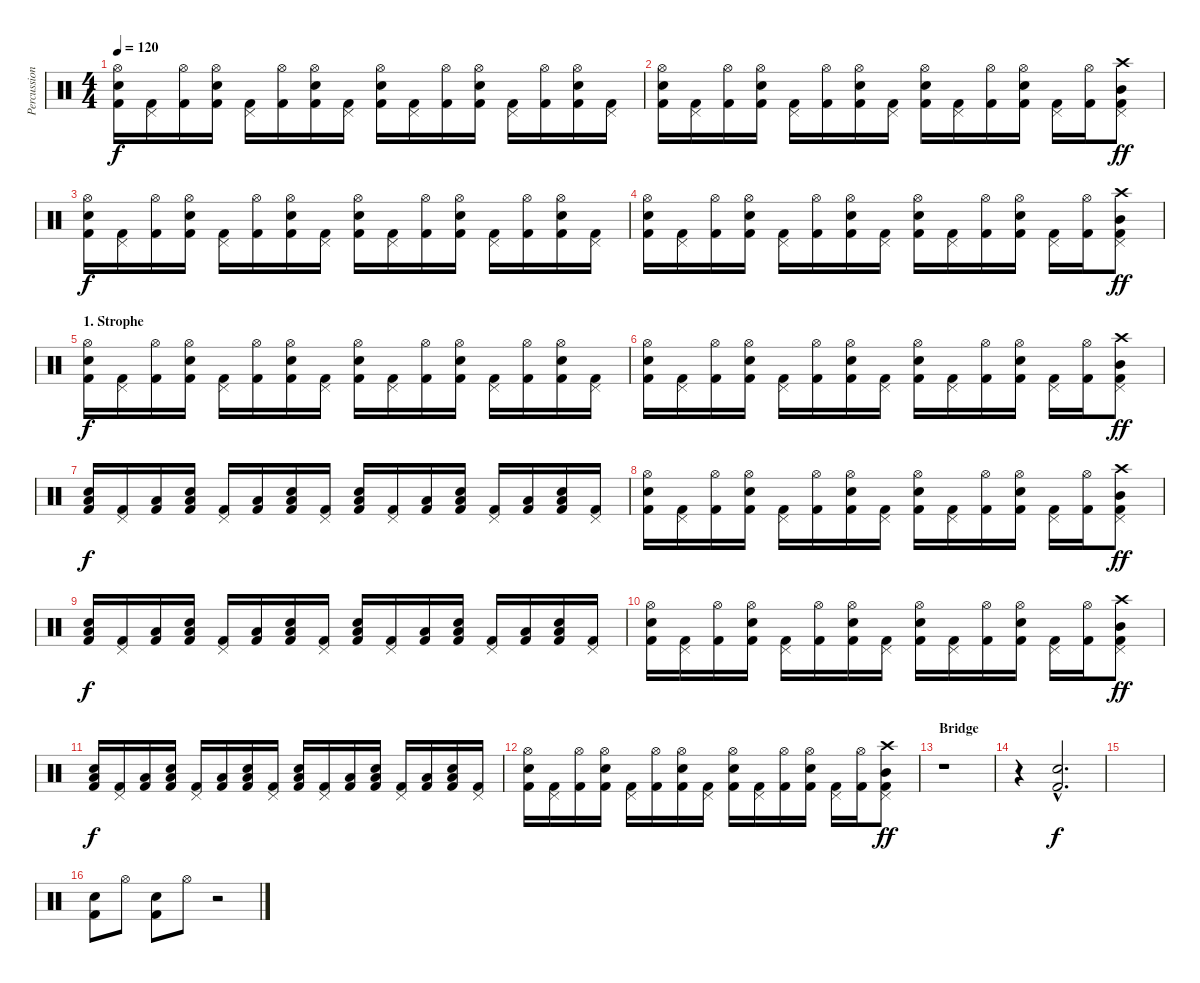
\track ("Percussion" "Percussion") {instrument percussion}
\staff {score}
\articulation defaults
\ts (4 4)
\tempo 120
\clef neutral
\ks c
("Hi-Hat (open)" "Electric Snare (hit)" "Kick (hit) 2").16{dy f} ("Pedal Hi-Hat (hit)" "Kick (hit) 2").16 ("Hi-Hat (open)" "Kick (hit) 2").16 ("Hi-Hat (open)" "Electric Snare (hit)" "Kick (hit) 2").16 ("Pedal Hi-Hat (hit)" "Kick (hit) 2").16 ("Hi-Hat (open)" "Kick (hit) 2").16 ("Hi-Hat (open)" "Electric Snare (hit)" "Kick (hit) 2").16 ("Pedal Hi-Hat (hit)" "Kick (hit) 2").16 ("Hi-Hat (open)" "Electric Snare (hit)" "Kick (hit) 2").16 ("Pedal Hi-Hat (hit)" "Kick (hit) 2").16 ("Hi-Hat (open)" "Kick (hit) 2").16 ("Hi-Hat (open)" "Electric Snare (hit)" "Kick (hit) 2").16 ("Pedal Hi-Hat (hit)" "Kick (hit) 2").16 ("Hi-Hat (open)" "Kick (hit) 2").16 ("Hi-Hat (open)" "Electric Snare (hit)" "Kick (hit) 2").16 ("Pedal Hi-Hat (hit)" "Kick (hit) 2").16 |
("Hi-Hat (open)" "Electric Snare (hit)" "Kick (hit) 2").16 ("Pedal Hi-Hat (hit)" "Kick (hit) 2").16 ("Hi-Hat (open)" "Kick (hit) 2").16 ("Hi-Hat (open)" "Electric Snare (hit)" "Kick (hit) 2").16 ("Pedal Hi-Hat (hit)" "Kick (hit) 2").16 ("Hi-Hat (open)" "Kick (hit) 2").16 ("Hi-Hat (open)" "Electric Snare (hit)" "Kick (hit) 2").16 ("Pedal Hi-Hat (hit)" "Kick (hit) 2").16 ("Hi-Hat (open)" "Electric Snare (hit)" "Kick (hit) 2").16 ("Pedal Hi-Hat (hit)" "Kick (hit) 2").16 ("Hi-Hat (open)" "Kick (hit) 2").16 ("Hi-Hat (open)" "Electric Snare (hit)" "Kick (hit) 2").16 ("Pedal Hi-Hat (hit)" "Kick (hit) 2").16 ("Hi-Hat (open)" "Kick (hit) 2").16 ("Crash high (hit)" "Mid Tom (hit)" "Pedal Hi-Hat (hit)" "Kick (hit) 2").8{dy ff} |
("Hi-Hat (open)" "Electric Snare (hit)" "Kick (hit) 2").16{dy f} ("Pedal Hi-Hat (hit)" "Kick (hit) 2").16 ("Hi-Hat (open)" "Kick (hit) 2").16 ("Hi-Hat (open)" "Electric Snare (hit)" "Kick (hit) 2").16 ("Pedal Hi-Hat (hit)" "Kick (hit) 2").16 ("Hi-Hat (open)" "Kick (hit) 2").16 ("Hi-Hat (open)" "Electric Snare (hit)" "Kick (hit) 2").16 ("Pedal Hi-Hat (hit)" "Kick (hit) 2").16 ("Hi-Hat (open)" "Electric Snare (hit)" "Kick (hit) 2").16 ("Pedal Hi-Hat (hit)" "Kick (hit) 2").16 ("Hi-Hat (open)" "Kick (hit) 2").16 ("Hi-Hat (open)" "Electric Snare (hit)" "Kick (hit) 2").16 ("Pedal Hi-Hat (hit)" "Kick (hit) 2").16 ("Hi-Hat (open)" "Kick (hit) 2").16 ("Hi-Hat (open)" "Electric Snare (hit)" "Kick (hit) 2").16 ("Pedal Hi-Hat (hit)" "Kick (hit) 2").16 |
("Hi-Hat (open)" "Electric Snare (hit)" "Kick (hit) 2").16 ("Pedal Hi-Hat (hit)" "Kick (hit) 2").16 ("Hi-Hat (open)" "Kick (hit) 2").16 ("Hi-Hat (open)" "Electric Snare (hit)" "Kick (hit) 2").16 ("Pedal Hi-Hat (hit)" "Kick (hit) 2").16 ("Hi-Hat (open)" "Kick (hit) 2").16 ("Hi-Hat (open)" "Electric Snare (hit)" "Kick (hit) 2").16 ("Pedal Hi-Hat (hit)" "Kick (hit) 2").16 ("Hi-Hat (open)" "Electric Snare (hit)" "Kick (hit) 2").16 ("Pedal Hi-Hat (hit)" "Kick (hit) 2").16 ("Hi-Hat (open)" "Kick (hit) 2").16 ("Hi-Hat (open)" "Electric Snare (hit)" "Kick (hit) 2").16 ("Pedal Hi-Hat (hit)" "Kick (hit) 2").16 ("Hi-Hat (open)" "Kick (hit) 2").16 ("Crash high (hit)" "Mid Tom (hit)" "Pedal Hi-Hat (hit)" "Kick (hit) 2").8{dy ff} |
\section ("" "1. Strophe")
("Hi-Hat (open)" "Electric Snare (hit)" "Kick (hit) 2").16{dy f} ("Pedal Hi-Hat (hit)" "Kick (hit) 2").16 ("Hi-Hat (open)" "Kick (hit) 2").16 ("Hi-Hat (open)" "Electric Snare (hit)" "Kick (hit) 2").16 ("Pedal Hi-Hat (hit)" "Kick (hit) 2").16 ("Hi-Hat (open)" "Kick (hit) 2").16 ("Hi-Hat (open)" "Electric Snare (hit)" "Kick (hit) 2").16 ("Pedal Hi-Hat (hit)" "Kick (hit) 2").16 ("Hi-Hat (open)" "Electric Snare (hit)" "Kick (hit) 2").16 ("Pedal Hi-Hat (hit)" "Kick (hit) 2").16 ("Hi-Hat (open)" "Kick (hit) 2").16 ("Hi-Hat (open)" "Electric Snare (hit)" "Kick (hit) 2").16 ("Pedal Hi-Hat (hit)" "Kick (hit) 2").16 ("Hi-Hat (open)" "Kick (hit) 2").16 ("Hi-Hat (open)" "Electric Snare (hit)" "Kick (hit) 2").16 ("Pedal Hi-Hat (hit)" "Kick (hit) 2").16 |
("Hi-Hat (open)" "Electric Snare (hit)" "Kick (hit) 2").16 ("Pedal Hi-Hat (hit)" "Kick (hit) 2").16 ("Hi-Hat (open)" "Kick (hit) 2").16 ("Hi-Hat (open)" "Electric Snare (hit)" "Kick (hit) 2").16 ("Pedal Hi-Hat (hit)" "Kick (hit) 2").16 ("Hi-Hat (open)" "Kick (hit) 2").16 ("Hi-Hat (open)" "Electric Snare (hit)" "Kick (hit) 2").16 ("Pedal Hi-Hat (hit)" "Kick (hit) 2").16 ("Hi-Hat (open)" "Electric Snare (hit)" "Kick (hit) 2").16 ("Pedal Hi-Hat (hit)" "Kick (hit) 2").16 ("Hi-Hat (open)" "Kick (hit) 2").16 ("Hi-Hat (open)" "Electric Snare (hit)" "Kick (hit) 2").16 ("Pedal Hi-Hat (hit)" "Kick (hit) 2").16 ("Hi-Hat (open)" "Kick (hit) 2").16 ("Crash high (hit)" "Mid Tom (hit)" "Pedal Hi-Hat (hit)" "Kick (hit) 2").8{dy ff} |
("Low Floor Tom (hit)" "Electric Snare (hit)" "Kick (hit) 2").16{dy f} ("Pedal Hi-Hat (hit)" "Kick (hit) 2").16 ("Low Floor Tom (hit)" "Kick (hit) 2").16 ("Low Floor Tom (hit)" "Electric Snare (hit)" "Kick (hit) 2").16 ("Pedal Hi-Hat (hit)" "Kick (hit) 2").16 ("Low Floor Tom (hit)" "Kick (hit) 2").16 ("Low Floor Tom (hit)" "Electric Snare (hit)" "Kick (hit) 2").16 ("Pedal Hi-Hat (hit)" "Kick (hit) 2").16 ("Low Floor Tom (hit)" "Electric Snare (hit)" "Kick (hit) 2").16 ("Pedal Hi-Hat (hit)" "Kick (hit) 2").16 ("Low Floor Tom (hit)" "Kick (hit) 2").16 ("Low Floor Tom (hit)" "Electric Snare (hit)" "Kick (hit) 2").16 ("Pedal Hi-Hat (hit)" "Kick (hit) 2").16 ("Low Floor Tom (hit)" "Kick (hit) 2").16 ("Low Floor Tom (hit)" "Electric Snare (hit)" "Kick (hit) 2").16 ("Pedal Hi-Hat (hit)" "Kick (hit) 2").16 |
("Hi-Hat (open)" "Electric Snare (hit)" "Kick (hit) 2").16 ("Pedal Hi-Hat (hit)" "Kick (hit) 2").16 ("Hi-Hat (open)" "Kick (hit) 2").16 ("Hi-Hat (open)" "Electric Snare (hit)" "Kick (hit) 2").16 ("Pedal Hi-Hat (hit)" "Kick (hit) 2").16 ("Hi-Hat (open)" "Kick (hit) 2").16 ("Hi-Hat (open)" "Electric Snare (hit)" "Kick (hit) 2").16 ("Pedal Hi-Hat (hit)" "Kick (hit) 2").16 ("Hi-Hat (open)" "Electric Snare (hit)" "Kick (hit) 2").16 ("Pedal Hi-Hat (hit)" "Kick (hit) 2").16 ("Hi-Hat (open)" "Kick (hit) 2").16 ("Hi-Hat (open)" "Electric Snare (hit)" "Kick (hit) 2").16 ("Pedal Hi-Hat (hit)" "Kick (hit) 2").16 ("Hi-Hat (open)" "Kick (hit) 2").16 ("Crash high (hit)" "Mid Tom (hit)" "Pedal Hi-Hat (hit)" "Kick (hit) 2").8{dy ff} |
("Low Floor Tom (hit)" "Electric Snare (hit)" "Kick (hit) 2").16{dy f} ("Pedal Hi-Hat (hit)" "Kick (hit) 2").16 ("Low Floor Tom (hit)" "Kick (hit) 2").16 ("Low Floor Tom (hit)" "Electric Snare (hit)" "Kick (hit) 2").16 ("Pedal Hi-Hat (hit)" "Kick (hit) 2").16 ("Low Floor Tom (hit)" "Kick (hit) 2").16 ("Low Floor Tom (hit)" "Electric Snare (hit)" "Kick (hit) 2").16 ("Pedal Hi-Hat (hit)" "Kick (hit) 2").16 ("Low Floor Tom (hit)" "Electric Snare (hit)" "Kick (hit) 2").16 ("Pedal Hi-Hat (hit)" "Kick (hit) 2").16 ("Low Floor Tom (hit)" "Kick (hit) 2").16 ("Low Floor Tom (hit)" "Electric Snare (hit)" "Kick (hit) 2").16 ("Pedal Hi-Hat (hit)" "Kick (hit) 2").16 ("Low Floor Tom (hit)" "Kick (hit) 2").16 ("Low Floor Tom (hit)" "Electric Snare (hit)" "Kick (hit) 2").16 ("Pedal Hi-Hat (hit)" "Kick (hit) 2").16 |
("Hi-Hat (open)" "Electric Snare (hit)" "Kick (hit) 2").16 ("Pedal Hi-Hat (hit)" "Kick (hit) 2").16 ("Hi-Hat (open)" "Kick (hit) 2").16 ("Hi-Hat (open)" "Electric Snare (hit)" "Kick (hit) 2").16 ("Pedal Hi-Hat (hit)" "Kick (hit) 2").16 ("Hi-Hat (open)" "Kick (hit) 2").16 ("Hi-Hat (open)" "Electric Snare (hit)" "Kick (hit) 2").16 ("Pedal Hi-Hat (hit)" "Kick (hit) 2").16 ("Hi-Hat (open)" "Electric Snare (hit)" "Kick (hit) 2").16 ("Pedal Hi-Hat (hit)" "Kick (hit) 2").16 ("Hi-Hat (open)" "Kick (hit) 2").16 ("Hi-Hat (open)" "Electric Snare (hit)" "Kick (hit) 2").16 ("Pedal Hi-Hat (hit)" "Kick (hit) 2").16 ("Hi-Hat (open)" "Kick (hit) 2").16 ("Crash high (hit)" "Mid Tom (hit)" "Pedal Hi-Hat (hit)" "Kick (hit) 2").8{dy ff} |
("Low Floor Tom (hit)" "Electric Snare (hit)" "Kick (hit) 2").16{dy f} ("Pedal Hi-Hat (hit)" "Kick (hit) 2").16 ("Low Floor Tom (hit)" "Kick (hit) 2").16 ("Low Floor Tom (hit)" "Electric Snare (hit)" "Kick (hit) 2").16 ("Pedal Hi-Hat (hit)" "Kick (hit) 2").16 ("Low Floor Tom (hit)" "Kick (hit) 2").16 ("Low Floor Tom (hit)" "Electric Snare (hit)" "Kick (hit) 2").16 ("Pedal Hi-Hat (hit)" "Kick (hit) 2").16 ("Low Floor Tom (hit)" "Electric Snare (hit)" "Kick (hit) 2").16 ("Pedal Hi-Hat (hit)" "Kick (hit) 2").16 ("Low Floor Tom (hit)" "Kick (hit) 2").16 ("Low Floor Tom (hit)" "Electric Snare (hit)" "Kick (hit) 2").16 ("Pedal Hi-Hat (hit)" "Kick (hit) 2").16 ("Low Floor Tom (hit)" "Kick (hit) 2").16 ("Low Floor Tom (hit)" "Electric Snare (hit)" "Kick (hit) 2").16 ("Pedal Hi-Hat (hit)" "Kick (hit) 2").16 |
("Hi-Hat (open)" "Electric Snare (hit)" "Kick (hit) 2").16 ("Pedal Hi-Hat (hit)" "Kick (hit) 2").16 ("Hi-Hat (open)" "Kick (hit) 2").16 ("Hi-Hat (open)" "Electric Snare (hit)" "Kick (hit) 2").16 ("Pedal Hi-Hat (hit)" "Kick (hit) 2").16 ("Hi-Hat (open)" "Kick (hit) 2").16 ("Hi-Hat (open)" "Electric Snare (hit)" "Kick (hit) 2").16 ("Pedal Hi-Hat (hit)" "Kick (hit) 2").16 ("Hi-Hat (open)" "Electric Snare (hit)" "Kick (hit) 2").16 ("Pedal Hi-Hat (hit)" "Kick (hit) 2").16 ("Hi-Hat (open)" "Kick (hit) 2").16 ("Hi-Hat (open)" "Electric Snare (hit)" "Kick (hit) 2").16 ("Pedal Hi-Hat (hit)" "Kick (hit) 2").16 ("Hi-Hat (open)" "Kick (hit) 2").16 ("Crash high (hit)" "Mid Tom (hit)" "Pedal Hi-Hat (hit)" "Kick (hit) 2").8{dy ff} |
\section ("" "Bridge")
r.1 |
r.4 ("Electric Snare (hit)"{hac} "Kick (hit) 2"{hac}).2{d dy f} |
|
("Electric Snare (hit)" "Kick (hit) 2").8 "Hi-Hat (open)".8 ("Electric Snare (hit)" "Kick (hit) 2").8 "Hi-Hat (open)".8 r.2
